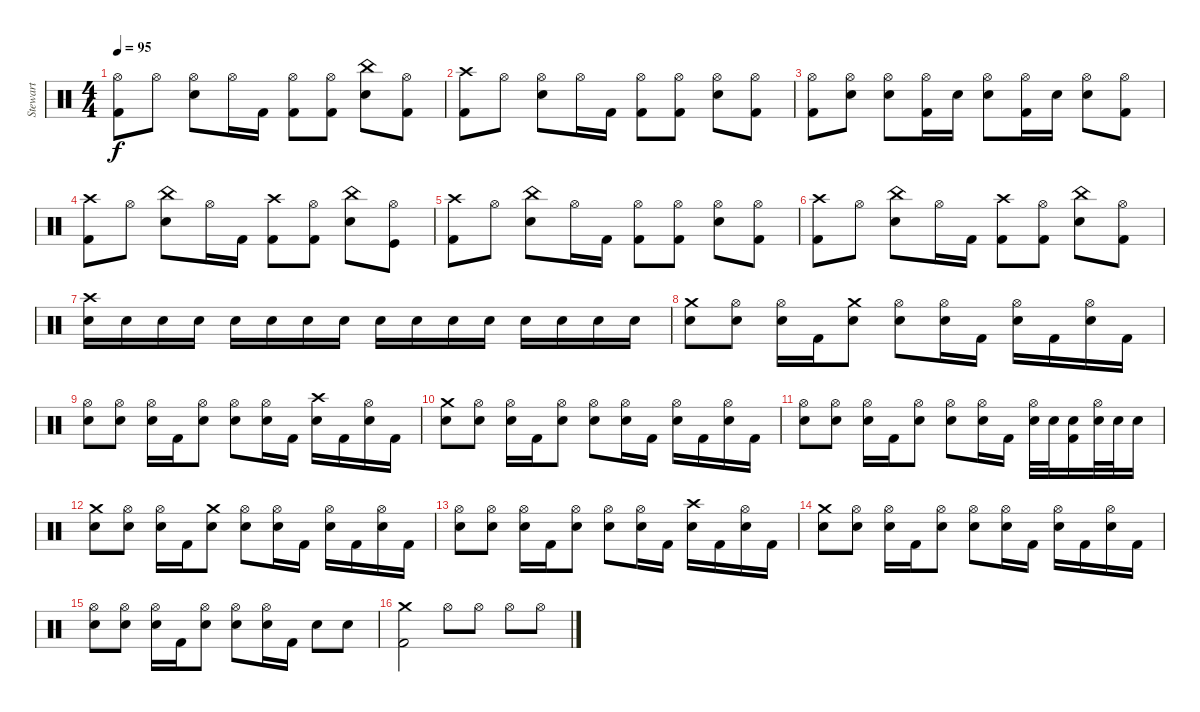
\track ("Stewart" "Stewart") {instrument percussion}
\staff {score}
\articulation defaults
\ts (4 4)
\tempo 95
\clef neutral
\ks c
("Hi-Hat (open)" "Kick (hit) 2").8{dy f} "Hi-Hat (open)".8 ("Hi-Hat (open)" "Snare (hit) 2").8 "Hi-Hat (open)".16 "Kick (hit) 2".16 ("Hi-Hat (open)" "Kick (hit) 2").8 ("Hi-Hat (open)" "Kick (hit) 2").8 ("China (hit)" "Snare (hit) 2").8 ("Hi-Hat (open)" "Kick (hit) 2").8 |
("Crash high (hit)" "Kick (hit) 2").8 "Hi-Hat (open)".8 ("Hi-Hat (open)" "Snare (hit) 2").8 "Hi-Hat (open)".16 "Kick (hit) 2".16 ("Hi-Hat (open)" "Kick (hit) 2").8 ("Hi-Hat (open)" "Kick (hit) 2").8 ("Hi-Hat (open)" "Snare (hit) 2").8 ("Hi-Hat (open)" "Kick (hit) 2").8 |
("Hi-Hat (open)" "Kick (hit) 2").8 ("Hi-Hat (open)" "Snare (hit) 2").8 ("Hi-Hat (open)" "Snare (hit) 2").8 ("Hi-Hat (open)" "Kick (hit) 2").16 "Snare (hit) 2".16 ("Hi-Hat (open)" "Snare (hit) 2").8 ("Hi-Hat (open)" "Kick (hit) 2").16 "Snare (hit) 2".16 ("Hi-Hat (open)" "Snare (hit) 2").8 ("Hi-Hat (open)" "Kick (hit) 2").8 |
("Crash high (hit)" "Kick (hit) 2").8 "Hi-Hat (open)".8 ("China (hit)" "Snare (hit) 2").8 "Hi-Hat (open)".16 "Kick (hit) 2".16 ("Crash high (hit)" "Kick (hit) 2").8 ("Hi-Hat (open)" "Kick (hit) 2").8 ("China (hit)" "Snare (hit) 2").8 ("Hi-Hat (open)" "Kick (hit)").8 |
("Crash high (hit)" "Kick (hit) 2").8 "Hi-Hat (open)".8 ("China (hit)" "Snare (hit) 2").8 "Hi-Hat (open)".16 "Kick (hit) 2".16 ("Hi-Hat (open)" "Kick (hit) 2").8 ("Hi-Hat (open)" "Kick (hit) 2").8 ("Hi-Hat (open)" "Snare (hit) 2").8 ("Hi-Hat (open)" "Kick (hit) 2").8 |
("Crash high (hit)" "Kick (hit) 2").8 "Hi-Hat (open)".8 ("China (hit)" "Snare (hit) 2").8 "Hi-Hat (open)".16 "Kick (hit) 2".16 ("Crash high (hit)" "Kick (hit) 2").8 ("Hi-Hat (open)" "Kick (hit) 2").8 ("China (hit)" "Snare (hit) 2").8 ("Hi-Hat (open)" "Kick (hit) 2").8 |
("Snare (hit) 2" "Crash high (hit)").16 "Snare (hit) 2".16 "Snare (hit) 2".16 "Snare (hit) 2".16 "Snare (hit) 2".16 "Snare (hit) 2".16 "Snare (hit) 2".16 "Snare (hit) 2".16 "Snare (hit) 2".16 "Snare (hit) 2".16 "Snare (hit) 2".16 "Snare (hit) 2".16 "Snare (hit) 2".16 "Snare (hit) 2".16 "Snare (hit) 2".16 "Snare (hit) 2".16 |
("Crash medium (hit)" "Snare (hit) 2").8 ("Hi-Hat (open)" "Snare (hit) 2").8 ("Hi-Hat (open)" "Snare (hit) 2").16 "Kick (hit) 2".16 ("Crash medium (hit)" "Snare (hit) 2").8 ("Hi-Hat (open)" "Snare (hit) 2").8 ("Hi-Hat (open)" "Snare (hit) 2").16 "Kick (hit) 2".16 ("Hi-Hat (open)" "Snare (hit) 2").16 "Kick (hit) 2".16 ("Hi-Hat (open)" "Snare (hit) 2").16 "Kick (hit) 2".16 |
("Hi-Hat (open)" "Snare (hit) 2").8 ("Hi-Hat (open)" "Snare (hit) 2").8 ("Hi-Hat (open)" "Snare (hit) 2").16 "Kick (hit) 2".16 ("Hi-Hat (open)" "Snare (hit) 2").8 ("Hi-Hat (open)" "Snare (hit) 2").8 ("Hi-Hat (open)" "Snare (hit) 2").16 "Kick (hit) 2".16 ("Crash high (hit)" "Snare (hit) 2").16 "Kick (hit) 2".16 ("Hi-Hat (open)" "Snare (hit) 2").16 "Kick (hit) 2".16 |
("Crash medium (hit)" "Snare (hit) 2").8 ("Hi-Hat (open)" "Snare (hit) 2").8 ("Hi-Hat (open)" "Snare (hit) 2").16 "Kick (hit) 2".16 ("Hi-Hat (open)" "Snare (hit) 2").8 ("Hi-Hat (open)" "Snare (hit) 2").8 ("Hi-Hat (open)" "Snare (hit) 2").16 "Kick (hit) 2".16 ("Hi-Hat (open)" "Snare (hit) 2").16 "Kick (hit) 2".16 ("Hi-Hat (open)" "Snare (hit) 2").16 "Kick (hit) 2".16 |
("Hi-Hat (open)" "Snare (hit) 2").8 ("Hi-Hat (open)" "Snare (hit) 2").8 ("Hi-Hat (open)" "Snare (hit) 2").16 "Kick (hit) 2".16 ("Hi-Hat (open)" "Snare (hit) 2").8 ("Hi-Hat (open)" "Snare (hit) 2").8 ("Hi-Hat (open)" "Snare (hit) 2").16 "Kick (hit) 2".16 ("Hi-Hat (open)" "Snare (hit) 2").32 "Snare (hit) 2".32 ("Snare (hit) 2" "Kick (hit) 2").16 ("Hi-Hat (open)" "Snare (hit) 2").32 "Snare (hit) 2".32 "Snare (hit) 2".16 |
("Crash medium (hit)" "Snare (hit) 2").8 ("Hi-Hat (open)" "Snare (hit) 2").8 ("Hi-Hat (open)" "Snare (hit) 2").16 "Kick (hit) 2".16 ("Crash medium (hit)" "Snare (hit) 2").8 ("Hi-Hat (open)" "Snare (hit) 2").8 ("Hi-Hat (open)" "Snare (hit) 2").16 "Kick (hit) 2".16 ("Hi-Hat (open)" "Snare (hit) 2").16 "Kick (hit) 2".16 ("Hi-Hat (open)" "Snare (hit) 2").16 "Kick (hit) 2".16 |
("Hi-Hat (open)" "Snare (hit) 2").8 ("Hi-Hat (open)" "Snare (hit) 2").8 ("Hi-Hat (open)" "Snare (hit) 2").16 "Kick (hit) 2".16 ("Hi-Hat (open)" "Snare (hit) 2").8 ("Hi-Hat (open)" "Snare (hit) 2").8 ("Hi-Hat (open)" "Snare (hit) 2").16 "Kick (hit) 2".16 ("Crash high (hit)" "Snare (hit) 2").16 "Kick (hit) 2".16 ("Hi-Hat (open)" "Snare (hit) 2").16 "Kick (hit) 2".16 |
("Crash medium (hit)" "Snare (hit) 2").8 ("Hi-Hat (open)" "Snare (hit) 2").8 ("Hi-Hat (open)" "Snare (hit) 2").16 "Kick (hit) 2".16 ("Hi-Hat (open)" "Snare (hit) 2").8 ("Hi-Hat (open)" "Snare (hit) 2").8 ("Hi-Hat (open)" "Snare (hit) 2").16 "Kick (hit) 2".16 ("Hi-Hat (open)" "Snare (hit) 2").16 "Kick (hit) 2".16 ("Hi-Hat (open)" "Snare (hit) 2").16 "Kick (hit) 2".16 |
("Hi-Hat (open)" "Snare (hit) 2").8 ("Hi-Hat (open)" "Snare (hit) 2").8 ("Hi-Hat (open)" "Snare (hit) 2").16 "Kick (hit) 2".16 ("Hi-Hat (open)" "Snare (hit) 2").8 ("Hi-Hat (open)" "Snare (hit) 2").8 ("Hi-Hat (open)" "Snare (hit) 2").16 "Kick (hit) 2".16 "Snare (hit) 2".8 "Snare (hit) 2".8 |
("Crash medium (hit)" "Kick (hit) 2").2 "Hi-Hat (open)".8 "Hi-Hat (open)".8 "Hi-Hat (open)".8 "Hi-Hat (open)".8
